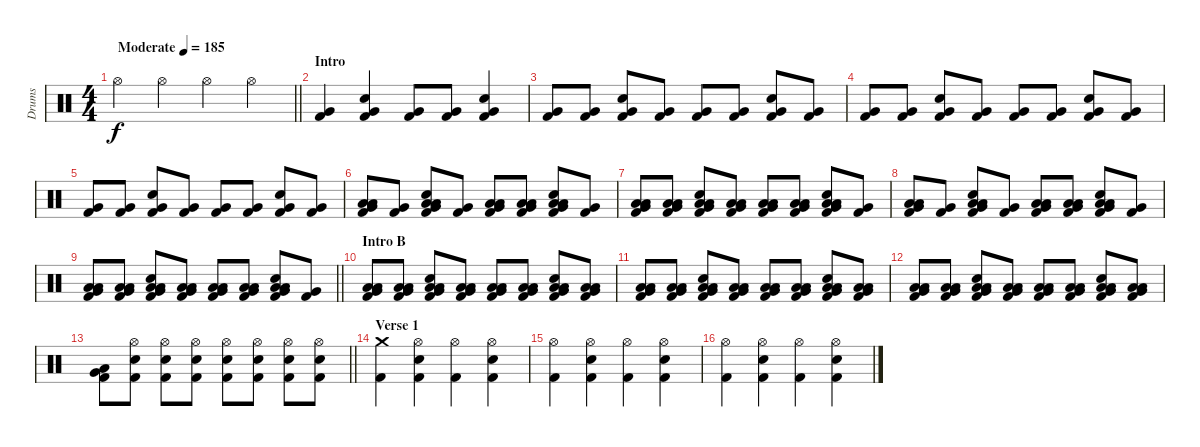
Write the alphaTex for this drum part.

\track ("Drums" "Drums") {instrument percussion bank 1}
\staff {score}
\articulation defaults
\ts (4 4)
\tempo (185 "Moderate")
\clef neutral
\barLineRight lightlight
\ks c "Hi-Hat (open)".4{dy f} "Hi-Hat (open)".4 "Hi-Hat (open)".4 "Hi-Hat (open)".4
|
\section ("" "Intro")
("Very Low Tom (hit)" "Kick (hit) 2").4 ("Snare (hit) 2" "Kick (hit) 2" "Very Low Tom (hit)").4 ("Kick (hit) 2" "Very Low Tom (hit)").8 ("Very Low Tom (hit)" "Kick (hit) 2").8 ("Very Low Tom (hit)" "Kick (hit) 2" "Snare (hit) 2").4 |
("Kick (hit) 2" "Very Low Tom (hit)").8 ("Very Low Tom (hit)" "Kick (hit) 2").8 ("Very Low Tom (hit)" "Kick (hit) 2" "Snare (hit) 2").8 ("Kick (hit) 2" "Very Low Tom (hit)").8 ("Kick (hit) 2" "Very Low Tom (hit)").8 ("Very Low Tom (hit)" "Kick (hit) 2").8 ("Very Low Tom (hit)" "Kick (hit) 2" "Snare (hit) 2").8 ("Kick (hit) 2" "Very Low Tom (hit)").8 |
("Kick (hit) 2" "Very Low Tom (hit)").8 ("Very Low Tom (hit)" "Kick (hit) 2").8 ("Very Low Tom (hit)" "Kick (hit) 2" "Snare (hit) 2").8 ("Kick (hit) 2" "Very Low Tom (hit)").8 ("Kick (hit) 2" "Very Low Tom (hit)").8 ("Very Low Tom (hit)" "Kick (hit) 2").8 ("Very Low Tom (hit)" "Kick (hit) 2" "Snare (hit) 2").8 ("Kick (hit) 2" "Very Low Tom (hit)").8 |
("Kick (hit) 2" "Very Low Tom (hit)").8 ("Very Low Tom (hit)" "Kick (hit) 2").8 ("Very Low Tom (hit)" "Kick (hit) 2" "Snare (hit) 2").8 ("Kick (hit) 2" "Very Low Tom (hit)").8 ("Kick (hit) 2" "Very Low Tom (hit)").8 ("Very Low Tom (hit)" "Kick (hit) 2").8 ("Very Low Tom (hit)" "Kick (hit) 2" "Snare (hit) 2").8 ("Kick (hit) 2" "Very Low Tom (hit)").8 |
("Low Floor Tom (hit)" "Kick (hit) 2" "Very Low Tom (hit)" "Low Tom (hit)").8 ("Very Low Tom (hit)" "Kick (hit) 2").8 ("Low Floor Tom (hit)" "Very Low Tom (hit)" "Kick (hit) 2" "Snare (hit) 2" "Low Tom (hit)").8 ("Kick (hit) 2" "Very Low Tom (hit)").8 ("Low Floor Tom (hit)" "Kick (hit) 2" "Very Low Tom (hit)" "Low Tom (hit)").8 ("Low Floor Tom (hit)" "Very Low Tom (hit)" "Kick (hit) 2" "Low Tom (hit)").8 ("Low Floor Tom (hit)" "Very Low Tom (hit)" "Kick (hit) 2" "Snare (hit) 2" "Low Tom (hit)").8 ("Kick (hit) 2" "Very Low Tom (hit)").8 |
("Low Floor Tom (hit)" "Kick (hit) 2" "Very Low Tom (hit)" "Low Tom (hit)").8 ("Low Floor Tom (hit)" "Kick (hit) 2" "Very Low Tom (hit)" "Low Tom (hit)").8 ("Low Floor Tom (hit)" "Very Low Tom (hit)" "Kick (hit) 2" "Snare (hit) 2" "Low Tom (hit)").8 ("Low Floor Tom (hit)" "Kick (hit) 2" "Very Low Tom (hit)" "Low Tom (hit)").8 ("Low Floor Tom (hit)" "Kick (hit) 2" "Very Low Tom (hit)" "Low Tom (hit)").8 ("Low Floor Tom (hit)" "Very Low Tom (hit)" "Kick (hit) 2" "Low Tom (hit)").8 ("Low Floor Tom (hit)" "Very Low Tom (hit)" "Kick (hit) 2" "Snare (hit) 2" "Low Tom (hit)").8 ("Kick (hit) 2" "Very Low Tom (hit)").8 |
("Low Floor Tom (hit)" "Kick (hit) 2" "Very Low Tom (hit)" "Low Tom (hit)").8 ("Very Low Tom (hit)" "Kick (hit) 2").8 ("Low Floor Tom (hit)" "Very Low Tom (hit)" "Kick (hit) 2" "Snare (hit) 2" "Low Tom (hit)").8 ("Kick (hit) 2" "Very Low Tom (hit)").8 ("Low Floor Tom (hit)" "Kick (hit) 2" "Very Low Tom (hit)" "Low Tom (hit)").8 ("Low Floor Tom (hit)" "Very Low Tom (hit)" "Kick (hit) 2" "Low Tom (hit)").8 ("Low Floor Tom (hit)" "Very Low Tom (hit)" "Kick (hit) 2" "Snare (hit) 2" "Low Tom (hit)").8 ("Kick (hit) 2" "Very Low Tom (hit)").8 |
\barLineRight lightlight
("Low Floor Tom (hit)" "Kick (hit) 2" "Very Low Tom (hit)" "Low Tom (hit)").8 ("Low Floor Tom (hit)" "Kick (hit) 2" "Very Low Tom (hit)" "Low Tom (hit)").8 ("Low Floor Tom (hit)" "Very Low Tom (hit)" "Kick (hit) 2" "Snare (hit) 2" "Low Tom (hit)").8 ("Low Floor Tom (hit)" "Kick (hit) 2" "Very Low Tom (hit)" "Low Tom (hit)").8 ("Low Floor Tom (hit)" "Kick (hit) 2" "Very Low Tom (hit)" "Low Tom (hit)").8 ("Low Floor Tom (hit)" "Very Low Tom (hit)" "Kick (hit) 2" "Low Tom (hit)").8 ("Low Floor Tom (hit)" "Very Low Tom (hit)" "Kick (hit) 2" "Snare (hit) 2" "Low Tom (hit)").8 ("Kick (hit) 2" "Very Low Tom (hit)").8 |
\section ("" "Intro B")
("Low Floor Tom (hit)" "Kick (hit) 2" "Very Low Tom (hit)" "Low Tom (hit)").8 ("Low Floor Tom (hit)" "Very Low Tom (hit)" "Kick (hit) 2" "Low Tom (hit)").8 ("Low Floor Tom (hit)" "Very Low Tom (hit)" "Kick (hit) 2" "Snare (hit) 2" "Low Tom (hit)").8 ("Low Floor Tom (hit)" "Kick (hit) 2" "Very Low Tom (hit)" "Low Tom (hit)").8 ("Low Floor Tom (hit)" "Kick (hit) 2" "Very Low Tom (hit)" "Low Tom (hit)").8 ("Low Floor Tom (hit)" "Very Low Tom (hit)" "Kick (hit) 2" "Low Tom (hit)").8 ("Low Floor Tom (hit)" "Very Low Tom (hit)" "Kick (hit) 2" "Snare (hit) 2" "Low Tom (hit)").8 ("Low Floor Tom (hit)" "Kick (hit) 2" "Very Low Tom (hit)" "Low Tom (hit)").8 |
("Low Floor Tom (hit)" "Kick (hit) 2" "Very Low Tom (hit)" "Low Tom (hit)").8 ("Low Floor Tom (hit)" "Very Low Tom (hit)" "Kick (hit) 2" "Low Tom (hit)").8 ("Low Floor Tom (hit)" "Very Low Tom (hit)" "Kick (hit) 2" "Snare (hit) 2" "Low Tom (hit)").8 ("Low Floor Tom (hit)" "Kick (hit) 2" "Very Low Tom (hit)" "Low Tom (hit)").8 ("Low Floor Tom (hit)" "Kick (hit) 2" "Very Low Tom (hit)" "Low Tom (hit)").8 ("Low Floor Tom (hit)" "Very Low Tom (hit)" "Kick (hit) 2" "Low Tom (hit)").8 ("Low Floor Tom (hit)" "Very Low Tom (hit)" "Kick (hit) 2" "Snare (hit) 2" "Low Tom (hit)").8 ("Low Floor Tom (hit)" "Kick (hit) 2" "Very Low Tom (hit)" "Low Tom (hit)").8 |
("Low Floor Tom (hit)" "Kick (hit) 2" "Very Low Tom (hit)" "Low Tom (hit)").8 ("Low Floor Tom (hit)" "Very Low Tom (hit)" "Kick (hit) 2" "Low Tom (hit)").8 ("Low Floor Tom (hit)" "Very Low Tom (hit)" "Kick (hit) 2" "Snare (hit) 2" "Low Tom (hit)").8 ("Low Floor Tom (hit)" "Kick (hit) 2" "Very Low Tom (hit)" "Low Tom (hit)").8 ("Low Floor Tom (hit)" "Kick (hit) 2" "Very Low Tom (hit)" "Low Tom (hit)").8 ("Low Floor Tom (hit)" "Very Low Tom (hit)" "Kick (hit) 2" "Low Tom (hit)").8 ("Low Floor Tom (hit)" "Very Low Tom (hit)" "Kick (hit) 2" "Snare (hit) 2" "Low Tom (hit)").8 ("Low Floor Tom (hit)" "Kick (hit) 2" "Very Low Tom (hit)" "Low Tom (hit)").8 |
\barLineRight lightlight
("Kick (hit) 2" "Very Low Tom (hit)" "Low Tom (hit)").8 ("Snare (hit) 2" "Hi-Hat (open)" "Kick (hit) 2").8 ("Snare (hit) 2" "Hi-Hat (open)" "Kick (hit) 2").8 ("Snare (hit) 2" "Hi-Hat (open)" "Kick (hit) 2").8 ("Snare (hit) 2" "Hi-Hat (open)" "Kick (hit) 2").8 ("Snare (hit) 2" "Hi-Hat (open)" "Kick (hit) 2").8 ("Snare (hit) 2" "Hi-Hat (open)" "Kick (hit) 2").8 ("Snare (hit) 2" "Hi-Hat (open)" "Kick (hit) 2").8 |
\section ("" "Verse 1")
("Kick (hit) 2" "Crash medium (hit)").4 ("Kick (hit) 2" "Snare (hit) 2" "Hi-Hat (open)").4 ("Kick (hit) 2" "Hi-Hat (open)").4 ("Kick (hit) 2" "Snare (hit) 2" "Hi-Hat (open)").4 |
("Kick (hit) 2" "Hi-Hat (open)").4 ("Kick (hit) 2" "Snare (hit) 2" "Hi-Hat (open)").4 ("Kick (hit) 2" "Hi-Hat (open)").4 ("Kick (hit) 2" "Snare (hit) 2" "Hi-Hat (open)").4 |
("Kick (hit) 2" "Hi-Hat (open)").4 ("Kick (hit) 2" "Snare (hit) 2" "Hi-Hat (open)").4 ("Kick (hit) 2" "Hi-Hat (open)").4 ("Kick (hit) 2" "Snare (hit) 2" "Hi-Hat (open)").4
